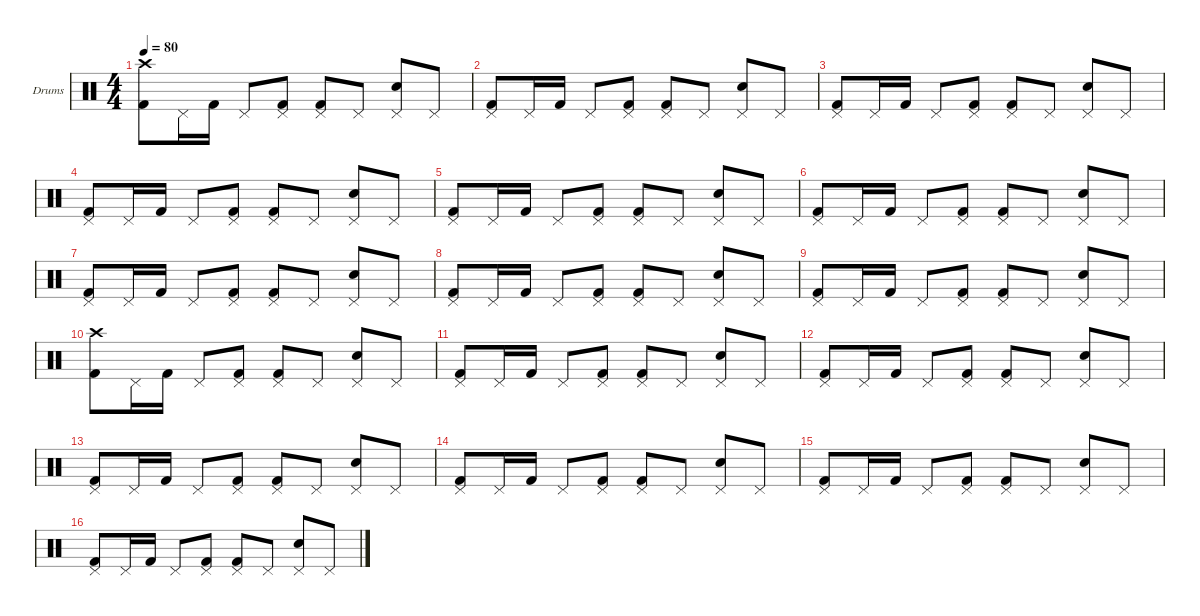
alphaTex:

\hideDynamics
\bracketExtendMode nobrackets
\firstSystemTrackNameOrientation horizontal
\otherSystemsTrackNameOrientation horizontal
\track ("Drumkit" "Drums") {instrument percussion}
\staff {score}
\articulation defaults
\ts (4 4)
\tempo 80
\clef neutral
\ks c
("Crash high (hit)" "Kick (hit) 2").8{dy p} "Pedal Hi-Hat (hit)".16 "Kick (hit) 2".16{dy f} "Pedal Hi-Hat (hit)".8{dy p} ("Pedal Hi-Hat (hit)" "Kick (hit) 2").8 ("Pedal Hi-Hat (hit)" "Kick (hit) 2").8 "Pedal Hi-Hat (hit)".8 ("Pedal Hi-Hat (hit)" "Snare (hit) 2").8 "Pedal Hi-Hat (hit)".8 |
("Pedal Hi-Hat (hit)" "Kick (hit) 2").8 "Pedal Hi-Hat (hit)".16 "Kick (hit) 2".16{dy f} "Pedal Hi-Hat (hit)".8{dy p} ("Pedal Hi-Hat (hit)" "Kick (hit) 2").8 ("Pedal Hi-Hat (hit)" "Kick (hit) 2").8 "Pedal Hi-Hat (hit)".8 ("Pedal Hi-Hat (hit)" "Snare (hit) 2").8 "Pedal Hi-Hat (hit)".8 |
("Pedal Hi-Hat (hit)" "Kick (hit) 2").8 "Pedal Hi-Hat (hit)".16 "Kick (hit) 2".16{dy f} "Pedal Hi-Hat (hit)".8{dy p} ("Pedal Hi-Hat (hit)" "Kick (hit) 2").8 ("Pedal Hi-Hat (hit)" "Kick (hit) 2").8 "Pedal Hi-Hat (hit)".8 ("Pedal Hi-Hat (hit)" "Snare (hit) 2").8 "Pedal Hi-Hat (hit)".8 |
("Pedal Hi-Hat (hit)" "Kick (hit) 2").8 "Pedal Hi-Hat (hit)".16 "Kick (hit) 2".16{dy f} "Pedal Hi-Hat (hit)".8{dy p} ("Pedal Hi-Hat (hit)" "Kick (hit) 2").8 ("Pedal Hi-Hat (hit)" "Kick (hit) 2").8 "Pedal Hi-Hat (hit)".8 ("Pedal Hi-Hat (hit)" "Snare (hit) 2").8 "Pedal Hi-Hat (hit)".8 |
("Pedal Hi-Hat (hit)" "Kick (hit) 2").8 "Pedal Hi-Hat (hit)".16 "Kick (hit) 2".16{dy f} "Pedal Hi-Hat (hit)".8{dy p} ("Pedal Hi-Hat (hit)" "Kick (hit) 2").8 ("Pedal Hi-Hat (hit)" "Kick (hit) 2").8 "Pedal Hi-Hat (hit)".8 ("Pedal Hi-Hat (hit)" "Snare (hit) 2").8 "Pedal Hi-Hat (hit)".8 |
("Pedal Hi-Hat (hit)" "Kick (hit) 2").8 "Pedal Hi-Hat (hit)".16 "Kick (hit) 2".16{dy f} "Pedal Hi-Hat (hit)".8{dy p} ("Pedal Hi-Hat (hit)" "Kick (hit) 2").8 ("Pedal Hi-Hat (hit)" "Kick (hit) 2").8 "Pedal Hi-Hat (hit)".8 ("Pedal Hi-Hat (hit)" "Snare (hit) 2").8 "Pedal Hi-Hat (hit)".8 |
("Pedal Hi-Hat (hit)" "Kick (hit) 2").8 "Pedal Hi-Hat (hit)".16 "Kick (hit) 2".16{dy f} "Pedal Hi-Hat (hit)".8{dy p} ("Pedal Hi-Hat (hit)" "Kick (hit) 2").8 ("Pedal Hi-Hat (hit)" "Kick (hit) 2").8 "Pedal Hi-Hat (hit)".8 ("Pedal Hi-Hat (hit)" "Snare (hit) 2").8 "Pedal Hi-Hat (hit)".8 |
("Pedal Hi-Hat (hit)" "Kick (hit) 2").8 "Pedal Hi-Hat (hit)".16 "Kick (hit) 2".16{dy f} "Pedal Hi-Hat (hit)".8{dy p} ("Pedal Hi-Hat (hit)" "Kick (hit) 2").8 ("Pedal Hi-Hat (hit)" "Kick (hit) 2").8 "Pedal Hi-Hat (hit)".8 ("Pedal Hi-Hat (hit)" "Snare (hit) 2").8 "Pedal Hi-Hat (hit)".8 |
("Pedal Hi-Hat (hit)" "Kick (hit) 2").8 "Pedal Hi-Hat (hit)".16 "Kick (hit) 2".16{dy f} "Pedal Hi-Hat (hit)".8{dy p} ("Pedal Hi-Hat (hit)" "Kick (hit) 2").8 ("Pedal Hi-Hat (hit)" "Kick (hit) 2").8 "Pedal Hi-Hat (hit)".8 ("Pedal Hi-Hat (hit)" "Snare (hit) 2").8 "Pedal Hi-Hat (hit)".8 |
("Crash high (hit)" "Kick (hit) 2").8{dy f} "Pedal Hi-Hat (hit)".16{dy p} "Kick (hit) 2".16{dy f} "Pedal Hi-Hat (hit)".8{dy p} ("Pedal Hi-Hat (hit)" "Kick (hit) 2").8 ("Pedal Hi-Hat (hit)" "Kick (hit) 2").8 "Pedal Hi-Hat (hit)".8 ("Pedal Hi-Hat (hit)" "Snare (hit) 2").8 "Pedal Hi-Hat (hit)".8 |
("Pedal Hi-Hat (hit)" "Kick (hit) 2").8 "Pedal Hi-Hat (hit)".16 "Kick (hit) 2".16{dy f} "Pedal Hi-Hat (hit)".8{dy p} ("Pedal Hi-Hat (hit)" "Kick (hit) 2").8 ("Pedal Hi-Hat (hit)" "Kick (hit) 2").8 "Pedal Hi-Hat (hit)".8 ("Pedal Hi-Hat (hit)" "Snare (hit) 2").8 "Pedal Hi-Hat (hit)".8 |
("Pedal Hi-Hat (hit)" "Kick (hit) 2").8 "Pedal Hi-Hat (hit)".16 "Kick (hit) 2".16{dy f} "Pedal Hi-Hat (hit)".8{dy p} ("Pedal Hi-Hat (hit)" "Kick (hit) 2").8 ("Pedal Hi-Hat (hit)" "Kick (hit) 2").8 "Pedal Hi-Hat (hit)".8 ("Pedal Hi-Hat (hit)" "Snare (hit) 2").8 "Pedal Hi-Hat (hit)".8 |
("Pedal Hi-Hat (hit)" "Kick (hit) 2").8 "Pedal Hi-Hat (hit)".16 "Kick (hit) 2".16{dy f} "Pedal Hi-Hat (hit)".8{dy p} ("Pedal Hi-Hat (hit)" "Kick (hit) 2").8 ("Pedal Hi-Hat (hit)" "Kick (hit) 2").8 "Pedal Hi-Hat (hit)".8 ("Pedal Hi-Hat (hit)" "Snare (hit) 2").8 "Pedal Hi-Hat (hit)".8 |
("Pedal Hi-Hat (hit)" "Kick (hit) 2").8 "Pedal Hi-Hat (hit)".16 "Kick (hit) 2".16{dy f} "Pedal Hi-Hat (hit)".8{dy p} ("Pedal Hi-Hat (hit)" "Kick (hit) 2").8 ("Pedal Hi-Hat (hit)" "Kick (hit) 2").8 "Pedal Hi-Hat (hit)".8 ("Pedal Hi-Hat (hit)" "Snare (hit) 2").8 "Pedal Hi-Hat (hit)".8 |
("Pedal Hi-Hat (hit)" "Kick (hit) 2").8 "Pedal Hi-Hat (hit)".16 "Kick (hit) 2".16{dy f} "Pedal Hi-Hat (hit)".8{dy p} ("Pedal Hi-Hat (hit)" "Kick (hit) 2").8 ("Pedal Hi-Hat (hit)" "Kick (hit) 2").8 "Pedal Hi-Hat (hit)".8 ("Pedal Hi-Hat (hit)" "Snare (hit) 2").8 "Pedal Hi-Hat (hit)".8 |
("Pedal Hi-Hat (hit)" "Kick (hit) 2").8 "Pedal Hi-Hat (hit)".16 "Kick (hit) 2".16{dy f} "Pedal Hi-Hat (hit)".8{dy p} ("Pedal Hi-Hat (hit)" "Kick (hit) 2").8 ("Pedal Hi-Hat (hit)" "Kick (hit) 2").8 "Pedal Hi-Hat (hit)".8 ("Pedal Hi-Hat (hit)" "Snare (hit) 2").8 "Pedal Hi-Hat (hit)".8
